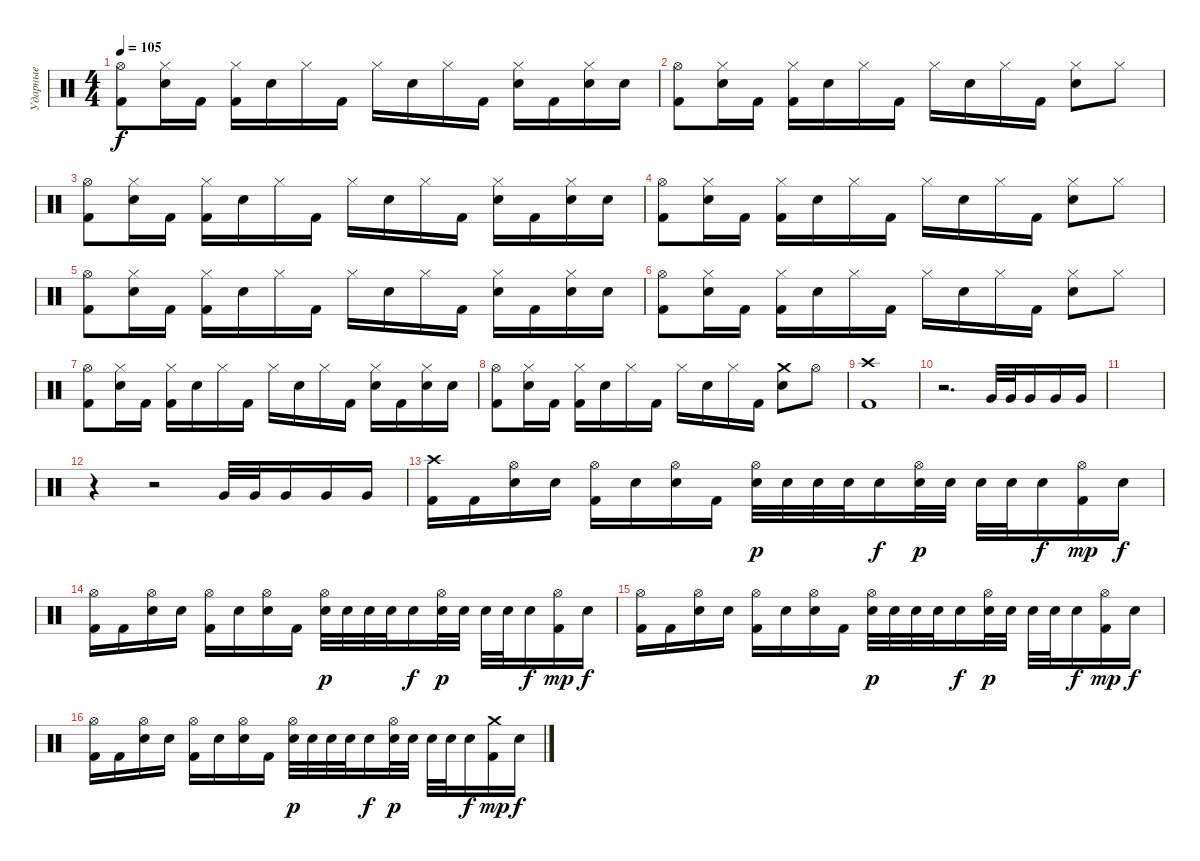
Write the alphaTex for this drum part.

\track ("Ударные" "Ударные") {instrument percussion}
\staff {score}
\articulation defaults
\ts (4 4)
\tempo 105
\clef neutral
\ks c
("Hi-Hat (open)" "Kick (hit) 2").8{dy f} ("Hi-Hat (closed)" "Electric Snare (hit)").16 "Kick (hit) 2".16 ("Hi-Hat (closed)" "Kick (hit) 2").16 "Electric Snare (hit)".16 "Hi-Hat (closed)".16 "Kick (hit) 2".16 "Hi-Hat (closed)".16 "Electric Snare (hit)".16 "Hi-Hat (closed)".16 "Kick (hit) 2".16 ("Hi-Hat (closed)" "Electric Snare (hit)").16 "Kick (hit) 2".16 ("Hi-Hat (closed)" "Electric Snare (hit)").16 "Electric Snare (hit)".16 |
("Hi-Hat (open)" "Kick (hit) 2").8 ("Hi-Hat (closed)" "Electric Snare (hit)").16 "Kick (hit) 2".16 ("Hi-Hat (closed)" "Kick (hit) 2").16 "Electric Snare (hit)".16 "Hi-Hat (closed)".16 "Kick (hit) 2".16 "Hi-Hat (closed)".16 "Electric Snare (hit)".16 "Hi-Hat (closed)".16 "Kick (hit) 2".16 ("Hi-Hat (closed)" "Electric Snare (hit)").8 "Hi-Hat (closed)".8 |
("Hi-Hat (open)" "Kick (hit) 2").8 ("Hi-Hat (closed)" "Electric Snare (hit)").16 "Kick (hit) 2".16 ("Hi-Hat (closed)" "Kick (hit) 2").16 "Electric Snare (hit)".16 "Hi-Hat (closed)".16 "Kick (hit) 2".16 "Hi-Hat (closed)".16 "Electric Snare (hit)".16 "Hi-Hat (closed)".16 "Kick (hit) 2".16 ("Hi-Hat (closed)" "Electric Snare (hit)").16 "Kick (hit) 2".16 ("Hi-Hat (closed)" "Electric Snare (hit)").16 "Electric Snare (hit)".16 |
("Hi-Hat (open)" "Kick (hit) 2").8 ("Hi-Hat (closed)" "Electric Snare (hit)").16 "Kick (hit) 2".16 ("Hi-Hat (closed)" "Kick (hit) 2").16 "Electric Snare (hit)".16 "Hi-Hat (closed)".16 "Kick (hit) 2".16 "Hi-Hat (closed)".16 "Electric Snare (hit)".16 "Hi-Hat (closed)".16 "Kick (hit) 2".16 ("Hi-Hat (closed)" "Electric Snare (hit)").8 "Hi-Hat (closed)".8 |
("Hi-Hat (open)" "Kick (hit) 2").8 ("Hi-Hat (closed)" "Electric Snare (hit)").16 "Kick (hit) 2".16 ("Hi-Hat (closed)" "Kick (hit) 2").16 "Electric Snare (hit)".16 "Hi-Hat (closed)".16 "Kick (hit) 2".16 "Hi-Hat (closed)".16 "Electric Snare (hit)".16 "Hi-Hat (closed)".16 "Kick (hit) 2".16 ("Hi-Hat (closed)" "Electric Snare (hit)").16 "Kick (hit) 2".16 ("Hi-Hat (closed)" "Electric Snare (hit)").16 "Electric Snare (hit)".16 |
("Hi-Hat (open)" "Kick (hit) 2").8 ("Hi-Hat (closed)" "Electric Snare (hit)").16 "Kick (hit) 2".16 ("Hi-Hat (closed)" "Kick (hit) 2").16 "Electric Snare (hit)".16 "Hi-Hat (closed)".16 "Kick (hit) 2".16 "Hi-Hat (closed)".16 "Electric Snare (hit)".16 "Hi-Hat (closed)".16 "Kick (hit) 2".16 ("Hi-Hat (closed)" "Electric Snare (hit)").8 "Hi-Hat (closed)".8 |
("Hi-Hat (open)" "Kick (hit) 2").8 ("Hi-Hat (closed)" "Electric Snare (hit)").16 "Kick (hit) 2".16 ("Hi-Hat (closed)" "Kick (hit) 2").16 "Electric Snare (hit)".16 "Hi-Hat (closed)".16 "Kick (hit) 2".16 "Hi-Hat (closed)".16 "Electric Snare (hit)".16 "Hi-Hat (closed)".16 "Kick (hit) 2".16 ("Hi-Hat (closed)" "Electric Snare (hit)").16 "Kick (hit) 2".16 ("Hi-Hat (closed)" "Electric Snare (hit)").16 "Electric Snare (hit)".16 |
("Hi-Hat (open)" "Kick (hit) 2").8 ("Hi-Hat (closed)" "Electric Snare (hit)").16 "Kick (hit) 2".16 ("Hi-Hat (closed)" "Kick (hit) 2").16 "Electric Snare (hit)".16 "Hi-Hat (closed)".16 "Kick (hit) 2".16 "Hi-Hat (closed)".16 "Electric Snare (hit)".16 "Hi-Hat (closed)".16 "Kick (hit) 2".16 ("Crash medium (hit)" "Electric Snare (hit)").8 "Hi-Hat (open)".8 |
("Crash high (hit)" "Kick (hit) 2").1 |
r.2{d} "Very Low Tom (hit)".32 "Very Low Tom (hit)".32 "Very Low Tom (hit)".16 "Very Low Tom (hit)".16 "Very Low Tom (hit)".16 |
|
r.4 r.2 "Very Low Tom (hit)".32 "Very Low Tom (hit)".32 "Very Low Tom (hit)".16 "Very Low Tom (hit)".16 "Very Low Tom (hit)".16 |
("Crash high (hit)" "Kick (hit) 2").16 "Kick (hit) 2".16 ("Hi-Hat (open)" "Electric Snare (hit)").16 "Electric Snare (hit)".16 ("Hi-Hat (open)" "Kick (hit) 2").16 "Electric Snare (hit)".16 ("Hi-Hat (open)" "Electric Snare (hit)").16 "Kick (hit) 2".16 ("Hi-Hat (open)" "Electric Snare (hit)").32{dy p} "Electric Snare (hit)".32 "Electric Snare (hit)".32 "Electric Snare (hit)".32 "Electric Snare (hit)".16{dy f} ("Hi-Hat (open)" "Electric Snare (hit)").32{dy p} "Electric Snare (hit)".32 "Electric Snare (hit)".32 "Electric Snare (hit)".32 "Electric Snare (hit)".16{dy f} ("Hi-Hat (open)" "Kick (hit) 2").16{dy mp} "Electric Snare (hit)".16{dy f} |
("Hi-Hat (open)" "Kick (hit) 2").16 "Kick (hit) 2".16 ("Hi-Hat (open)" "Electric Snare (hit)").16 "Electric Snare (hit)".16 ("Hi-Hat (open)" "Kick (hit) 2").16 "Electric Snare (hit)".16 ("Hi-Hat (open)" "Electric Snare (hit)").16 "Kick (hit) 2".16 ("Hi-Hat (open)" "Electric Snare (hit)").32{dy p} "Electric Snare (hit)".32 "Electric Snare (hit)".32 "Electric Snare (hit)".32 "Electric Snare (hit)".16{dy f} ("Hi-Hat (open)" "Electric Snare (hit)").32{dy p} "Electric Snare (hit)".32 "Electric Snare (hit)".32 "Electric Snare (hit)".32 "Electric Snare (hit)".16{dy f} ("Hi-Hat (open)" "Kick (hit) 2").16{dy mp} "Electric Snare (hit)".16{dy f} |
("Hi-Hat (open)" "Kick (hit) 2").16 "Kick (hit) 2".16 ("Hi-Hat (open)" "Electric Snare (hit)").16 "Electric Snare (hit)".16 ("Hi-Hat (open)" "Kick (hit) 2").16 "Electric Snare (hit)".16 ("Hi-Hat (open)" "Electric Snare (hit)").16 "Kick (hit) 2".16 ("Hi-Hat (open)" "Electric Snare (hit)").32{dy p} "Electric Snare (hit)".32 "Electric Snare (hit)".32 "Electric Snare (hit)".32 "Electric Snare (hit)".16{dy f} ("Hi-Hat (open)" "Electric Snare (hit)").32{dy p} "Electric Snare (hit)".32 "Electric Snare (hit)".32 "Electric Snare (hit)".32 "Electric Snare (hit)".16{dy f} ("Hi-Hat (open)" "Kick (hit) 2").16{dy mp} "Electric Snare (hit)".16{dy f} |
("Hi-Hat (open)" "Kick (hit) 2").16 "Kick (hit) 2".16 ("Hi-Hat (open)" "Electric Snare (hit)").16 "Electric Snare (hit)".16 ("Hi-Hat (open)" "Kick (hit) 2").16 "Electric Snare (hit)".16 ("Hi-Hat (open)" "Electric Snare (hit)").16 "Kick (hit) 2".16 ("Hi-Hat (open)" "Electric Snare (hit)").32{dy p} "Electric Snare (hit)".32 "Electric Snare (hit)".32 "Electric Snare (hit)".32 "Electric Snare (hit)".16{dy f} ("Hi-Hat (open)" "Electric Snare (hit)").32{dy p} "Electric Snare (hit)".32 "Electric Snare (hit)".32 "Electric Snare (hit)".32 "Electric Snare (hit)".16{dy f} ("Crash medium (hit)" "Kick (hit) 2").16{dy mp} "Electric Snare (hit)".16{dy f}
